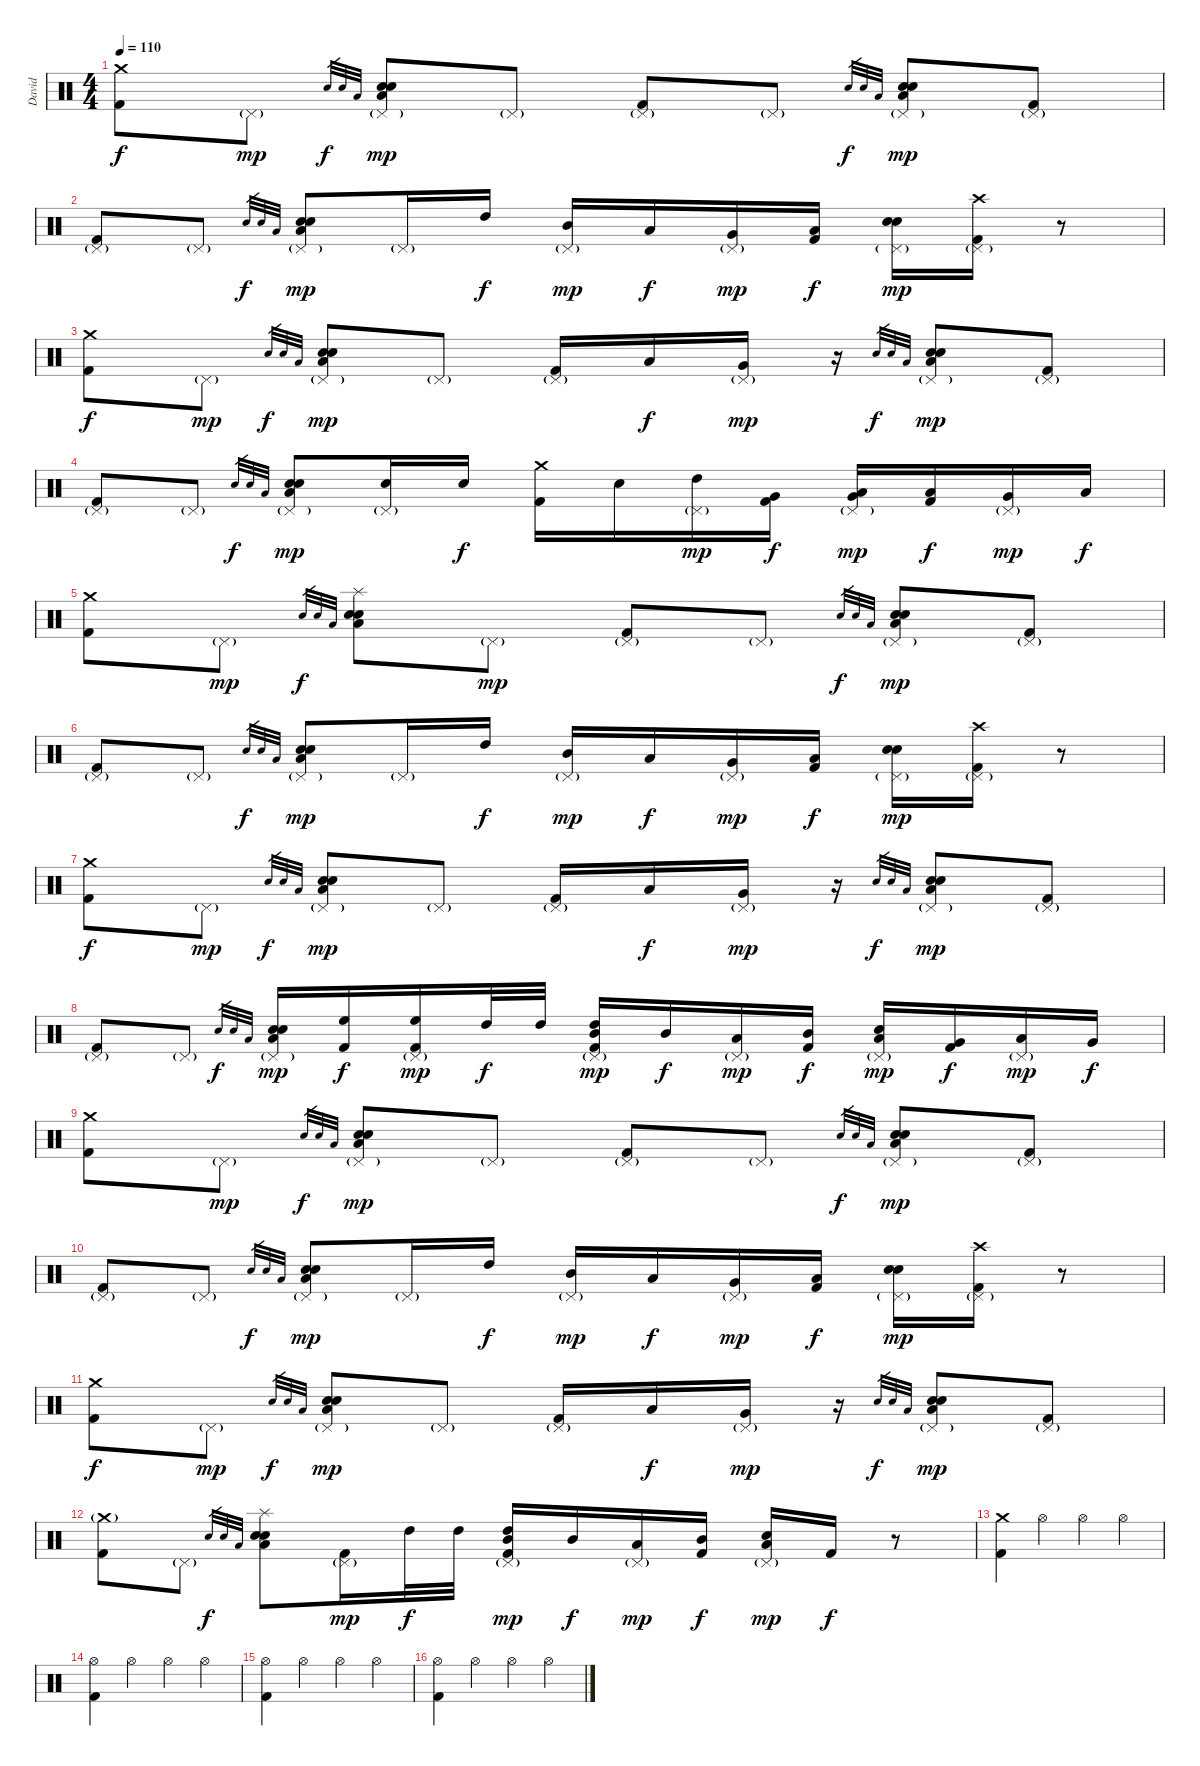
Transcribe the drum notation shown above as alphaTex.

\track ("David" "David") {instrument percussion}
\staff {score}
\articulation defaults
\ts (4 4)
\tempo 110
\clef neutral
\ks c
("Crash medium (hit)" "Kick (hit) 2").8{dy f} "Pedal Hi-Hat (hit)"{g}.8{dy mp} "Snare (hit) 2".32{gr dy f} "Snare (hit) 2".32{gr} "Low Floor Tom (hit)".32{gr} ("Pedal Hi-Hat (hit)"{g} "Snare (hit) 2" "Snare (hit) 2" "Low Floor Tom (hit)").8{dy mp} "Pedal Hi-Hat (hit)"{g}.8 ("Pedal Hi-Hat (hit)"{g} "Kick (hit) 2").8 "Pedal Hi-Hat (hit)"{g}.8 "Snare (hit) 2".32{gr dy f} "Snare (hit) 2".32{gr} "Low Floor Tom (hit)".32{gr} ("Pedal Hi-Hat (hit)"{g} "Snare (hit) 2" "Snare (hit) 2" "Low Floor Tom (hit)").8{dy mp} ("Pedal Hi-Hat (hit)"{g} "Kick (hit) 2").8 |
("Pedal Hi-Hat (hit)"{g} "Kick (hit) 2").8 "Pedal Hi-Hat (hit)"{g}.8 "Snare (hit) 2".32{gr dy f} "Snare (hit) 2".32{gr} "Low Floor Tom (hit)".32{gr} ("Pedal Hi-Hat (hit)"{g} "Snare (hit) 2" "Snare (hit) 2" "Low Floor Tom (hit)").8{dy mp} "Pedal Hi-Hat (hit)"{g}.16 "High Tom (hit)".16{dy f} ("Pedal Hi-Hat (hit)"{g} "Mid Tom (hit)").16{dy mp} "Low Tom (hit)".16{dy f} ("Pedal Hi-Hat (hit)"{g} "Very Low Tom (hit)").16{dy mp} ("Low Floor Tom (hit)" "Kick (hit) 2").16{dy f} ("Pedal Hi-Hat (hit)"{g} "Snare (hit) 2" "Snare (hit) 2").16{dy mp} ("Crash high (hit)" "Pedal Hi-Hat (hit)"{g} "Kick (hit) 2").16 r.8 |
("Crash medium (hit)" "Kick (hit) 2").8{dy f} "Pedal Hi-Hat (hit)"{g}.8{dy mp} "Snare (hit) 2".32{gr dy f} "Snare (hit) 2".32{gr} "Low Floor Tom (hit)".32{gr} ("Pedal Hi-Hat (hit)"{g} "Snare (hit) 2" "Snare (hit) 2" "Low Floor Tom (hit)").8{dy mp} "Pedal Hi-Hat (hit)"{g}.8 ("Pedal Hi-Hat (hit)"{g} "Kick (hit) 2").16 "Low Tom (hit)".16{dy f} ("Pedal Hi-Hat (hit)"{g} "Very Low Tom (hit)").16{dy mp} r.16 "Snare (hit) 2".32{gr dy f} "Snare (hit) 2".32{gr} "Low Floor Tom (hit)".32{gr} ("Pedal Hi-Hat (hit)"{g} "Snare (hit) 2" "Snare (hit) 2" "Low Floor Tom (hit)").8{dy mp} ("Pedal Hi-Hat (hit)"{g} "Kick (hit) 2").8 |
("Pedal Hi-Hat (hit)"{g} "Kick (hit) 2").8 "Pedal Hi-Hat (hit)"{g}.8 "Snare (hit) 2".32{gr dy f} "Snare (hit) 2".32{gr} "Low Floor Tom (hit)".32{gr} ("Pedal Hi-Hat (hit)"{g} "Snare (hit) 2" "Snare (hit) 2" "Low Floor Tom (hit)").8{dy mp} ("Pedal Hi-Hat (hit)"{g} "Snare (hit) 2").16 "Snare (hit) 2".16{dy f} ("Crash medium (hit)" "Kick (hit) 2").16 "Snare (hit) 2".16 ("Pedal Hi-Hat (hit)"{g} "High Tom (hit)").16{dy mp} ("Very Low Tom (hit)" "Kick (hit) 2").16{dy f} ("Pedal Hi-Hat (hit)"{g} "Low Tom (hit)" "Very Low Tom (hit)").16{dy mp} ("Low Floor Tom (hit)" "Kick (hit) 2").16{dy f} ("Pedal Hi-Hat (hit)"{g} "Very Low Tom (hit)").16{dy mp} "Low Floor Tom (hit)".16{dy f} |
("Crash medium (hit)" "Kick (hit) 2").8 "Pedal Hi-Hat (hit)"{g}.8{dy mp} "Snare (hit) 2".32{gr dy f} "Snare (hit) 2".32{gr} "Low Floor Tom (hit)".32{gr} ("Splash (hit)" "Snare (hit) 2" "Snare (hit) 2" "Low Floor Tom (hit)").8 "Pedal Hi-Hat (hit)"{g}.8{dy mp} ("Pedal Hi-Hat (hit)"{g} "Kick (hit) 2").8 "Pedal Hi-Hat (hit)"{g}.8 "Snare (hit) 2".32{gr dy f} "Snare (hit) 2".32{gr} "Low Floor Tom (hit)".32{gr} ("Pedal Hi-Hat (hit)"{g} "Snare (hit) 2" "Snare (hit) 2" "Low Floor Tom (hit)").8{dy mp} ("Pedal Hi-Hat (hit)"{g} "Kick (hit) 2").8 |
("Pedal Hi-Hat (hit)"{g} "Kick (hit) 2").8 "Pedal Hi-Hat (hit)"{g}.8 "Snare (hit) 2".32{gr dy f} "Snare (hit) 2".32{gr} "Low Floor Tom (hit)".32{gr} ("Pedal Hi-Hat (hit)"{g} "Snare (hit) 2" "Snare (hit) 2" "Low Floor Tom (hit)").8{dy mp} "Pedal Hi-Hat (hit)"{g}.16 "High Tom (hit)".16{dy f} ("Pedal Hi-Hat (hit)"{g} "Mid Tom (hit)").16{dy mp} "Low Tom (hit)".16{dy f} ("Pedal Hi-Hat (hit)"{g} "Very Low Tom (hit)").16{dy mp} ("Low Floor Tom (hit)" "Kick (hit) 2").16{dy f} ("Pedal Hi-Hat (hit)"{g} "Snare (hit) 2" "Snare (hit) 2").16{dy mp} ("Crash high (hit)" "Pedal Hi-Hat (hit)"{g} "Kick (hit) 2").16 r.8 |
("Crash medium (hit)" "Kick (hit) 2").8{dy f} "Pedal Hi-Hat (hit)"{g}.8{dy mp} "Snare (hit) 2".32{gr dy f} "Snare (hit) 2".32{gr} "Low Floor Tom (hit)".32{gr} ("Pedal Hi-Hat (hit)"{g} "Snare (hit) 2" "Snare (hit) 2" "Low Floor Tom (hit)").8{dy mp} "Pedal Hi-Hat (hit)"{g}.8 ("Pedal Hi-Hat (hit)"{g} "Kick (hit) 2").16 "Low Tom (hit)".16{dy f} ("Pedal Hi-Hat (hit)"{g} "Very Low Tom (hit)").16{dy mp} r.16 "Snare (hit) 2".32{gr dy f} "Snare (hit) 2".32{gr} "Low Floor Tom (hit)".32{gr} ("Pedal Hi-Hat (hit)"{g} "Snare (hit) 2" "Snare (hit) 2" "Low Floor Tom (hit)").8{dy mp} ("Pedal Hi-Hat (hit)"{g} "Kick (hit) 2").8 |
("Pedal Hi-Hat (hit)"{g} "Kick (hit) 2").8 "Pedal Hi-Hat (hit)"{g}.8 "Snare (hit) 2".32{gr dy f} "Snare (hit) 2".32{gr} "Low Floor Tom (hit)".32{gr} ("Pedal Hi-Hat (hit)"{g} "Snare (hit) 2" "Snare (hit) 2" "Low Floor Tom (hit)").16{dy mp} ("High Floor Tom (hit)" "Kick (hit) 2").16{dy f} ("Pedal Hi-Hat (hit)"{g} "High Floor Tom (hit)" "Kick (hit) 2").16{dy mp} "High Tom (hit)".32{dy f} "High Tom (hit)".32 ("Pedal Hi-Hat (hit)"{g} "High Tom (hit)" "Mid Tom (hit)" "Kick (hit) 2").16{dy mp} "Mid Tom (hit)".16{dy f} ("Pedal Hi-Hat (hit)"{g} "Low Tom (hit)").16{dy mp} ("Mid Tom (hit)" "Kick (hit) 2").16{dy f} ("Pedal Hi-Hat (hit)"{g} "Snare (hit) 2" "Low Tom (hit)").16{dy mp} ("Very Low Tom (hit)" "Kick (hit) 2").16{dy f} ("Pedal Hi-Hat (hit)"{g} "Low Floor Tom (hit)").16{dy mp} "Very Low Tom (hit)".16{dy f} |
("Crash medium (hit)" "Kick (hit) 2").8 "Pedal Hi-Hat (hit)"{g}.8{dy mp} "Snare (hit) 2".32{gr dy f} "Snare (hit) 2".32{gr} "Low Floor Tom (hit)".32{gr} ("Pedal Hi-Hat (hit)"{g} "Snare (hit) 2" "Snare (hit) 2" "Low Floor Tom (hit)").8{dy mp} "Pedal Hi-Hat (hit)"{g}.8 ("Pedal Hi-Hat (hit)"{g} "Kick (hit) 2").8 "Pedal Hi-Hat (hit)"{g}.8 "Snare (hit) 2".32{gr dy f} "Snare (hit) 2".32{gr} "Low Floor Tom (hit)".32{gr} ("Pedal Hi-Hat (hit)"{g} "Snare (hit) 2" "Snare (hit) 2" "Low Floor Tom (hit)").8{dy mp} ("Pedal Hi-Hat (hit)"{g} "Kick (hit) 2").8 |
("Pedal Hi-Hat (hit)"{g} "Kick (hit) 2").8 "Pedal Hi-Hat (hit)"{g}.8 "Snare (hit) 2".32{gr dy f} "Snare (hit) 2".32{gr} "Low Floor Tom (hit)".32{gr} ("Pedal Hi-Hat (hit)"{g} "Snare (hit) 2" "Snare (hit) 2" "Low Floor Tom (hit)").8{dy mp} "Pedal Hi-Hat (hit)"{g}.16 "High Tom (hit)".16{dy f} ("Pedal Hi-Hat (hit)"{g} "Mid Tom (hit)").16{dy mp} "Low Tom (hit)".16{dy f} ("Pedal Hi-Hat (hit)"{g} "Very Low Tom (hit)").16{dy mp} ("Low Floor Tom (hit)" "Kick (hit) 2").16{dy f} ("Pedal Hi-Hat (hit)"{g} "Snare (hit) 2" "Snare (hit) 2").16{dy mp} ("Crash high (hit)" "Pedal Hi-Hat (hit)"{g} "Kick (hit) 2").16 r.8 |
("Crash medium (hit)" "Kick (hit) 2").8{dy f} "Pedal Hi-Hat (hit)"{g}.8{dy mp} "Snare (hit) 2".32{gr dy f} "Snare (hit) 2".32{gr} "Low Floor Tom (hit)".32{gr} ("Pedal Hi-Hat (hit)"{g} "Snare (hit) 2" "Snare (hit) 2" "Low Floor Tom (hit)").8{dy mp} "Pedal Hi-Hat (hit)"{g}.8 ("Pedal Hi-Hat (hit)"{g} "Kick (hit) 2").16 "Low Tom (hit)".16{dy f} ("Pedal Hi-Hat (hit)"{g} "Very Low Tom (hit)").16{dy mp} r.16 "Snare (hit) 2".32{gr dy f} "Snare (hit) 2".32{gr} "Low Floor Tom (hit)".32{gr} ("Pedal Hi-Hat (hit)"{g} "Snare (hit) 2" "Snare (hit) 2" "Low Floor Tom (hit)").8{dy mp} ("Pedal Hi-Hat (hit)"{g} "Kick (hit) 2").8 |
("Crash medium (hit)"{g} "Kick (hit) 2").8 "Pedal Hi-Hat (hit)"{g}.8 "Snare (hit) 2".32{gr dy f} "Snare (hit) 2".32{gr} "Low Floor Tom (hit)".32{gr} ("Splash (hit)" "Snare (hit) 2" "Snare (hit) 2" "Low Floor Tom (hit)").8 ("Pedal Hi-Hat (hit)"{g} "Kick (hit) 2").16{dy mp} "High Tom (hit)".32{dy f} "High Tom (hit)".32 ("Pedal Hi-Hat (hit)"{g} "High Tom (hit)" "Mid Tom (hit)" "Kick (hit) 2").16{dy mp} "Mid Tom (hit)".16{dy f} ("Pedal Hi-Hat (hit)"{g} "Low Tom (hit)").16{dy mp} ("Mid Tom (hit)" "Kick (hit) 2").16{dy f} ("Pedal Hi-Hat (hit)"{g} "Snare (hit) 2" "Low Tom (hit)").16{dy mp} "Kick (hit) 2".16{dy f} r.8 |
("Crash medium (hit)" "Kick (hit) 2").4 "Hi-Hat (open)".4 "Hi-Hat (open)".4 "Hi-Hat (open)".4 |
("Hi-Hat (open)" "Kick (hit) 2").4 "Hi-Hat (open)".4 "Hi-Hat (open)".4 "Hi-Hat (open)".4 |
("Hi-Hat (open)" "Kick (hit) 2").4 "Hi-Hat (open)".4 "Hi-Hat (open)".4 "Hi-Hat (open)".4 |
("Hi-Hat (open)" "Kick (hit) 2").4 "Hi-Hat (open)".4 "Hi-Hat (open)".4 "Hi-Hat (open)".4
